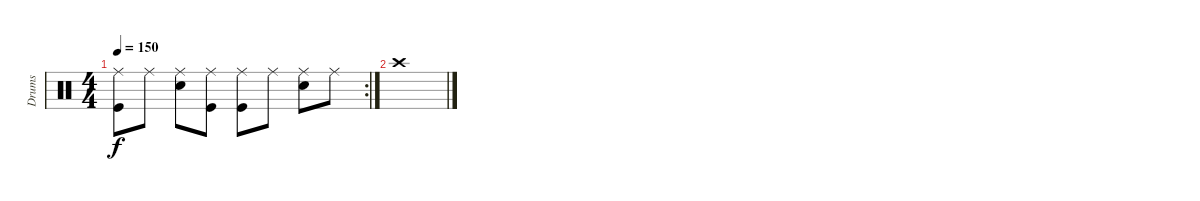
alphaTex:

\track ("Drums" "Drums") {instrument percussion}
\staff {score}
\articulation defaults
\rc 2
\ts (4 4)
\tempo 150
\clef neutral
\ks c
("Ride (middle)" "Kick (hit)").8{dy f} "Ride (middle)".8 ("Ride (middle)" "Snare (hit) 2").8 ("Ride (middle)" "Kick (hit)").8 ("Ride (middle)" "Kick (hit)").8 "Ride (middle)".8 ("Ride (middle)" "Snare (hit) 2").8 "Ride (middle)".8 |
"Crash high (hit)".1
